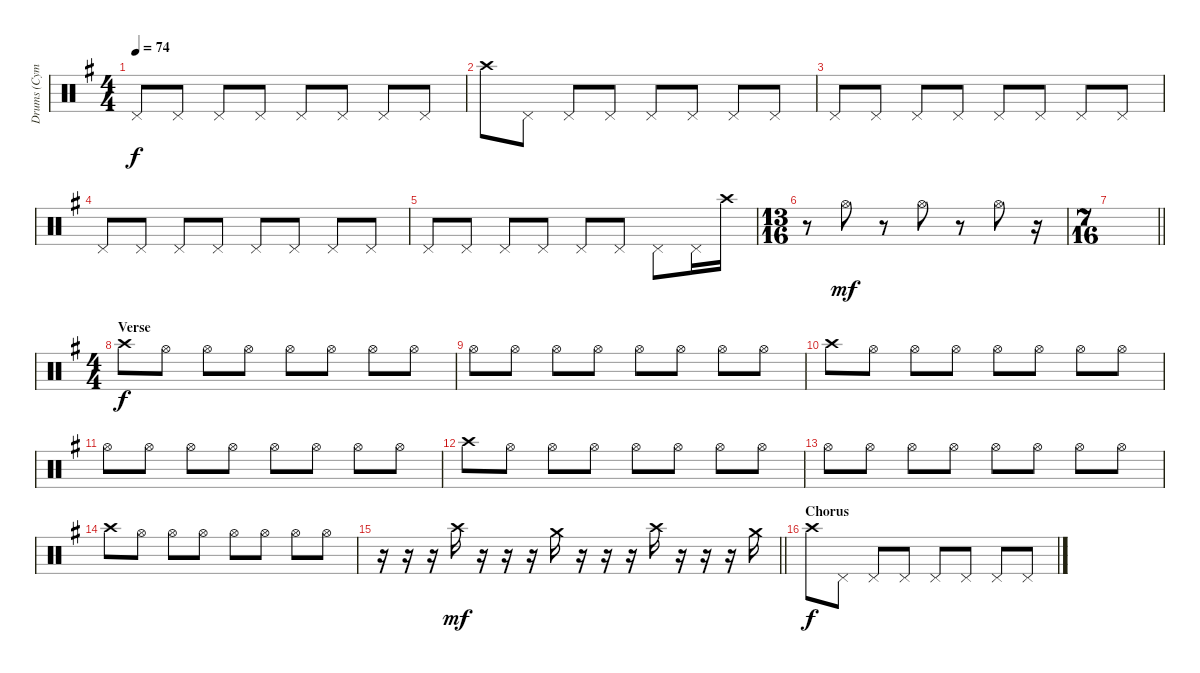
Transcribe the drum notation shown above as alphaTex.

\track ("Drums (Cymbals)" "Drums (Cym") {instrument percussion}
\staff {score}
\articulation defaults
\ts (4 4)
\tempo 74
\clef neutral
\ks g "Pedal Hi-Hat (hit)".8{dy f} "Pedal Hi-Hat (hit)".8 "Pedal Hi-Hat (hit)".8 "Pedal Hi-Hat (hit)".8 "Pedal Hi-Hat (hit)".8 "Pedal Hi-Hat (hit)".8 "Pedal Hi-Hat (hit)".8 "Pedal Hi-Hat (hit)".8
|
"Crash high (hit)".8 "Pedal Hi-Hat (hit)".8 "Pedal Hi-Hat (hit)".8 "Pedal Hi-Hat (hit)".8 "Pedal Hi-Hat (hit)".8 "Pedal Hi-Hat (hit)".8 "Pedal Hi-Hat (hit)".8 "Pedal Hi-Hat (hit)".8 |
"Pedal Hi-Hat (hit)".8 "Pedal Hi-Hat (hit)".8 "Pedal Hi-Hat (hit)".8 "Pedal Hi-Hat (hit)".8 "Pedal Hi-Hat (hit)".8 "Pedal Hi-Hat (hit)".8 "Pedal Hi-Hat (hit)".8 "Pedal Hi-Hat (hit)".8 |
"Pedal Hi-Hat (hit)".8 "Pedal Hi-Hat (hit)".8 "Pedal Hi-Hat (hit)".8 "Pedal Hi-Hat (hit)".8 "Pedal Hi-Hat (hit)".8 "Pedal Hi-Hat (hit)".8 "Pedal Hi-Hat (hit)".8 "Pedal Hi-Hat (hit)".8 |
"Pedal Hi-Hat (hit)".8 "Pedal Hi-Hat (hit)".8 "Pedal Hi-Hat (hit)".8 "Pedal Hi-Hat (hit)".8 "Pedal Hi-Hat (hit)".8 "Pedal Hi-Hat (hit)".8 "Pedal Hi-Hat (hit)".8 "Pedal Hi-Hat (hit)".16 "Crash high (hit)".16 |
\ts (13 16)
r.8 "Hi-Hat (open)".8{dy mf} r.8 "Hi-Hat (open)".8 r.8 "Hi-Hat (open)".8 r.16 |
\ts (7 16)
\barLineRight lightlight
|
\ts (4 4)
\section ("" "Verse")
"Crash high (hit)".8{dy f} "Hi-Hat (open)".8 "Hi-Hat (open)".8 "Hi-Hat (open)".8 "Hi-Hat (open)".8 "Hi-Hat (open)".8 "Hi-Hat (open)".8 "Hi-Hat (open)".8 |
"Hi-Hat (open)".8 "Hi-Hat (open)".8 "Hi-Hat (open)".8 "Hi-Hat (open)".8 "Hi-Hat (open)".8 "Hi-Hat (open)".8 "Hi-Hat (open)".8 "Hi-Hat (open)".8 |
"Crash high (hit)".8 "Hi-Hat (open)".8 "Hi-Hat (open)".8 "Hi-Hat (open)".8 "Hi-Hat (open)".8 "Hi-Hat (open)".8 "Hi-Hat (open)".8 "Hi-Hat (open)".8 |
"Hi-Hat (open)".8 "Hi-Hat (open)".8 "Hi-Hat (open)".8 "Hi-Hat (open)".8 "Hi-Hat (open)".8 "Hi-Hat (open)".8 "Hi-Hat (open)".8 "Hi-Hat (open)".8 |
"Crash high (hit)".8 "Hi-Hat (open)".8 "Hi-Hat (open)".8 "Hi-Hat (open)".8 "Hi-Hat (open)".8 "Hi-Hat (open)".8 "Hi-Hat (open)".8 "Hi-Hat (open)".8 |
"Hi-Hat (open)".8 "Hi-Hat (open)".8 "Hi-Hat (open)".8 "Hi-Hat (open)".8 "Hi-Hat (open)".8 "Hi-Hat (open)".8 "Hi-Hat (open)".8 "Hi-Hat (open)".8 |
"Crash high (hit)".8 "Hi-Hat (open)".8 "Hi-Hat (open)".8 "Hi-Hat (open)".8 "Hi-Hat (open)".8 "Hi-Hat (open)".8 "Hi-Hat (open)".8 "Hi-Hat (open)".8 |
\barLineRight lightlight
r.16 r.16 r.16 "Crash high (hit)".16{dy mf} r.16 r.16 r.16 "Crash medium (hit)".16 r.16 r.16 r.16 "Crash high (hit)".16 r.16 r.16 r.16 "Crash medium (hit)".16 |
\section ("" "Chorus")
"Crash high (hit)".8{dy f} "Pedal Hi-Hat (hit)".8 "Pedal Hi-Hat (hit)".8 "Pedal Hi-Hat (hit)".8 "Pedal Hi-Hat (hit)".8 "Pedal Hi-Hat (hit)".8 "Pedal Hi-Hat (hit)".8 "Pedal Hi-Hat (hit)".8
